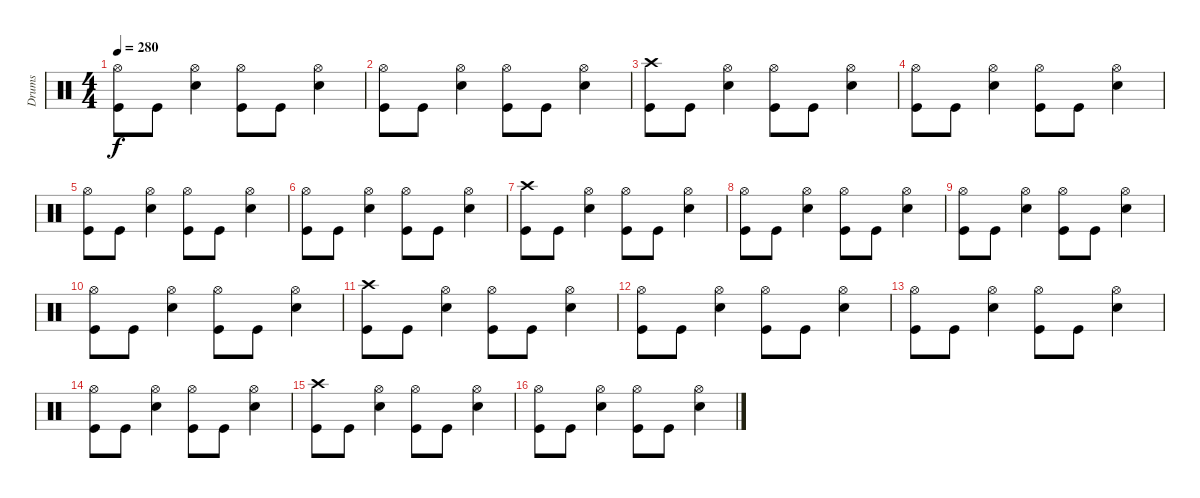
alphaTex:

\track ("Drums" "Drums") {instrument percussion}
\staff {score}
\articulation defaults
\ts (4 4)
\tempo 280
\clef neutral
\ks c
("Hi-Hat (open)" "Kick (hit)").8{dy f} "Kick (hit)".8 ("Hi-Hat (open)" "Electric Snare (hit)").4 ("Hi-Hat (open)" "Kick (hit)").8 "Kick (hit)".8 ("Hi-Hat (open)" "Electric Snare (hit)").4 |
("Hi-Hat (open)" "Kick (hit)").8 "Kick (hit)".8 ("Hi-Hat (open)" "Electric Snare (hit)").4 ("Hi-Hat (open)" "Kick (hit)").8 "Kick (hit)".8 ("Hi-Hat (open)" "Electric Snare (hit)").4 |
("Crash high (hit)" "Kick (hit)").8 "Kick (hit)".8 ("Hi-Hat (open)" "Electric Snare (hit)").4 ("Hi-Hat (open)" "Kick (hit)").8 "Kick (hit)".8 ("Hi-Hat (open)" "Electric Snare (hit)").4 |
("Hi-Hat (open)" "Kick (hit)").8 "Kick (hit)".8 ("Hi-Hat (open)" "Electric Snare (hit)").4 ("Hi-Hat (open)" "Kick (hit)").8 "Kick (hit)".8 ("Hi-Hat (open)" "Electric Snare (hit)").4 |
("Hi-Hat (open)" "Kick (hit)").8 "Kick (hit)".8 ("Hi-Hat (open)" "Electric Snare (hit)").4 ("Hi-Hat (open)" "Kick (hit)").8 "Kick (hit)".8 ("Hi-Hat (open)" "Electric Snare (hit)").4 |
("Hi-Hat (open)" "Kick (hit)").8 "Kick (hit)".8 ("Hi-Hat (open)" "Electric Snare (hit)").4 ("Hi-Hat (open)" "Kick (hit)").8 "Kick (hit)".8 ("Hi-Hat (open)" "Electric Snare (hit)").4 |
("Crash high (hit)" "Kick (hit)").8 "Kick (hit)".8 ("Hi-Hat (open)" "Electric Snare (hit)").4 ("Hi-Hat (open)" "Kick (hit)").8 "Kick (hit)".8 ("Hi-Hat (open)" "Electric Snare (hit)").4 |
("Hi-Hat (open)" "Kick (hit)").8 "Kick (hit)".8 ("Hi-Hat (open)" "Electric Snare (hit)").4 ("Hi-Hat (open)" "Kick (hit)").8 "Kick (hit)".8 ("Hi-Hat (open)" "Electric Snare (hit)").4 |
("Hi-Hat (open)" "Kick (hit)").8 "Kick (hit)".8 ("Hi-Hat (open)" "Electric Snare (hit)").4 ("Hi-Hat (open)" "Kick (hit)").8 "Kick (hit)".8 ("Hi-Hat (open)" "Electric Snare (hit)").4 |
("Hi-Hat (open)" "Kick (hit)").8 "Kick (hit)".8 ("Hi-Hat (open)" "Electric Snare (hit)").4 ("Hi-Hat (open)" "Kick (hit)").8 "Kick (hit)".8 ("Hi-Hat (open)" "Electric Snare (hit)").4 |
("Crash high (hit)" "Kick (hit)").8 "Kick (hit)".8 ("Hi-Hat (open)" "Electric Snare (hit)").4 ("Hi-Hat (open)" "Kick (hit)").8 "Kick (hit)".8 ("Hi-Hat (open)" "Electric Snare (hit)").4 |
("Hi-Hat (open)" "Kick (hit)").8 "Kick (hit)".8 ("Hi-Hat (open)" "Electric Snare (hit)").4 ("Hi-Hat (open)" "Kick (hit)").8 "Kick (hit)".8 ("Hi-Hat (open)" "Electric Snare (hit)").4 |
("Hi-Hat (open)" "Kick (hit)").8 "Kick (hit)".8 ("Hi-Hat (open)" "Electric Snare (hit)").4 ("Hi-Hat (open)" "Kick (hit)").8 "Kick (hit)".8 ("Hi-Hat (open)" "Electric Snare (hit)").4 |
("Hi-Hat (open)" "Kick (hit)").8 "Kick (hit)".8 ("Hi-Hat (open)" "Electric Snare (hit)").4 ("Hi-Hat (open)" "Kick (hit)").8 "Kick (hit)".8 ("Hi-Hat (open)" "Electric Snare (hit)").4 |
("Crash high (hit)" "Kick (hit)").8 "Kick (hit)".8 ("Hi-Hat (open)" "Electric Snare (hit)").4 ("Hi-Hat (open)" "Kick (hit)").8 "Kick (hit)".8 ("Hi-Hat (open)" "Electric Snare (hit)").4 |
("Hi-Hat (open)" "Kick (hit)").8 "Kick (hit)".8 ("Hi-Hat (open)" "Electric Snare (hit)").4 ("Hi-Hat (open)" "Kick (hit)").8 "Kick (hit)".8 ("Hi-Hat (open)" "Electric Snare (hit)").4
